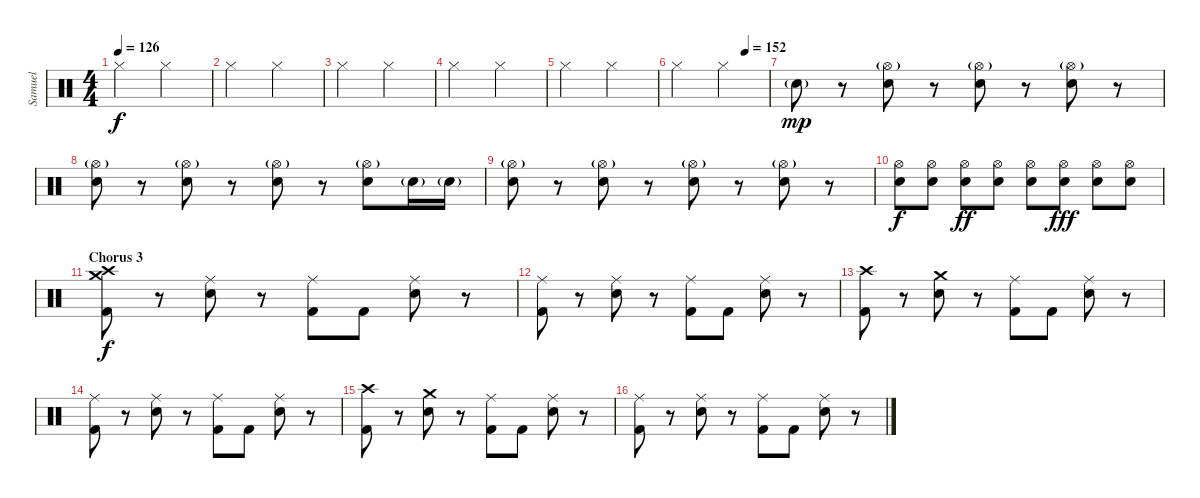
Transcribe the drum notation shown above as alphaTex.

\track ("Samuel" "Samuel") {instrument percussion}
\staff {score}
\articulation defaults
\ts (4 4)
\tempo 126
\clef neutral
\ks c "Hi-Hat (closed)".2{dy f} "Hi-Hat (closed)".2
|
"Hi-Hat (closed)".2 "Hi-Hat (closed)".2 |
"Hi-Hat (closed)".2 "Hi-Hat (closed)".2 |
"Hi-Hat (closed)".2 "Hi-Hat (closed)".2 |
"Hi-Hat (closed)".2 "Hi-Hat (closed)".2 |
\tempo (152 0.75)
"Hi-Hat (closed)".2 "Hi-Hat (closed)".2 |
"Snare (hit) 2"{g}.8{dy mp} r.8 ("Hi-Hat (open)"{g} "Snare (hit) 2").8 r.8 ("Hi-Hat (open)"{g} "Snare (hit) 2").8 r.8 ("Hi-Hat (open)"{g} "Snare (hit) 2").8 r.8 |
("Hi-Hat (open)"{g} "Snare (hit) 2").8 r.8 ("Hi-Hat (open)"{g} "Snare (hit) 2").8 r.8 ("Hi-Hat (open)"{g} "Snare (hit) 2").8 r.8 ("Hi-Hat (open)"{g} "Snare (hit) 2").8 "Snare (hit) 2"{g}.16 "Snare (hit) 2"{g}.16 |
("Hi-Hat (open)"{g} "Snare (hit) 2").8 r.8 ("Hi-Hat (open)"{g} "Snare (hit) 2").8 r.8 ("Hi-Hat (open)"{g} "Snare (hit) 2").8 r.8 ("Hi-Hat (open)"{g} "Snare (hit) 2").8 r.8 |
("Hi-Hat (open)" "Snare (hit) 2").8{dy f} ("Hi-Hat (open)" "Snare (hit) 2").8 ("Hi-Hat (open)" "Snare (hit) 2").8{dy ff} ("Hi-Hat (open)" "Snare (hit) 2").8 ("Hi-Hat (open)" "Snare (hit) 2").8 ("Hi-Hat (open)" "Snare (hit) 2").8{dy fff} ("Hi-Hat (open)" "Snare (hit) 2").8 ("Hi-Hat (open)" "Snare (hit) 2").8 |
\section ("" "Chorus 3")
("Crash medium (hit)" "Crash high (hit)" "Kick (hit) 2").8{dy f} r.8 ("Ride (middle)" "Snare (hit) 2").8 r.8 ("Ride (middle)" "Kick (hit) 2").8 "Kick (hit) 2".8 ("Ride (middle)" "Snare (hit) 2").8 r.8 |
("Ride (middle)" "Kick (hit) 2").8 r.8 ("Ride (middle)" "Snare (hit) 2").8 r.8 ("Ride (middle)" "Kick (hit) 2").8 "Kick (hit) 2".8 ("Ride (middle)" "Snare (hit) 2").8 r.8 |
("Crash high (hit)" "Kick (hit) 2").8 r.8 ("Crash medium (hit)" "Snare (hit) 2").8 r.8 ("Ride (middle)" "Kick (hit) 2").8 "Kick (hit) 2".8 ("Ride (middle)" "Snare (hit) 2").8 r.8 |
("Ride (middle)" "Kick (hit) 2").8 r.8 ("Ride (middle)" "Snare (hit) 2").8 r.8 ("Ride (middle)" "Kick (hit) 2").8 "Kick (hit) 2".8 ("Ride (middle)" "Snare (hit) 2").8 r.8 |
("Crash high (hit)" "Kick (hit) 2").8 r.8 ("Crash medium (hit)" "Snare (hit) 2").8 r.8 ("Ride (middle)" "Kick (hit) 2").8 "Kick (hit) 2".8 ("Ride (middle)" "Snare (hit) 2").8 r.8 |
("Ride (middle)" "Kick (hit) 2").8 r.8 ("Ride (middle)" "Snare (hit) 2").8 r.8 ("Ride (middle)" "Kick (hit) 2").8 "Kick (hit) 2".8 ("Ride (middle)" "Snare (hit) 2").8 r.8
